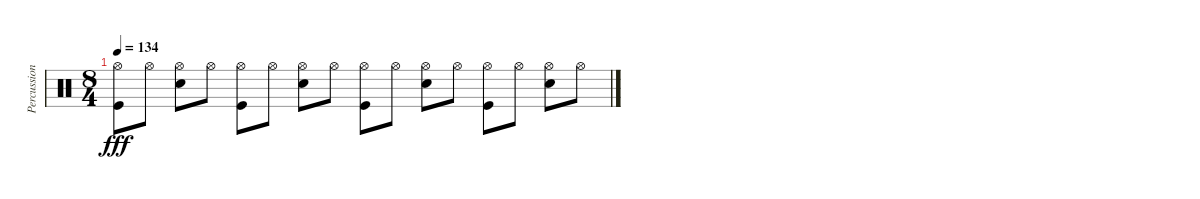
\track ("Percussion" "Percussion") {instrument percussion}
\staff {score}
\articulation defaults
\ts (8 4)
\tempo 134
\clef neutral
\ks c
("Hi-Hat (open)" "Kick (hit)").8{dy fff} "Hi-Hat (open)".8 ("Hi-Hat (open)" "Snare (hit) 2").8 "Hi-Hat (open)".8 ("Hi-Hat (open)" "Kick (hit)").8 "Hi-Hat (open)".8 ("Hi-Hat (open)" "Snare (hit) 2").8 "Hi-Hat (open)".8 ("Hi-Hat (open)" "Kick (hit)").8 "Hi-Hat (open)".8 ("Hi-Hat (open)" "Snare (hit) 2").8 "Hi-Hat (open)".8 ("Hi-Hat (open)" "Kick (hit)").8 "Hi-Hat (open)".8 ("Hi-Hat (open)" "Snare (hit) 2").8 "Hi-Hat (open)".8
